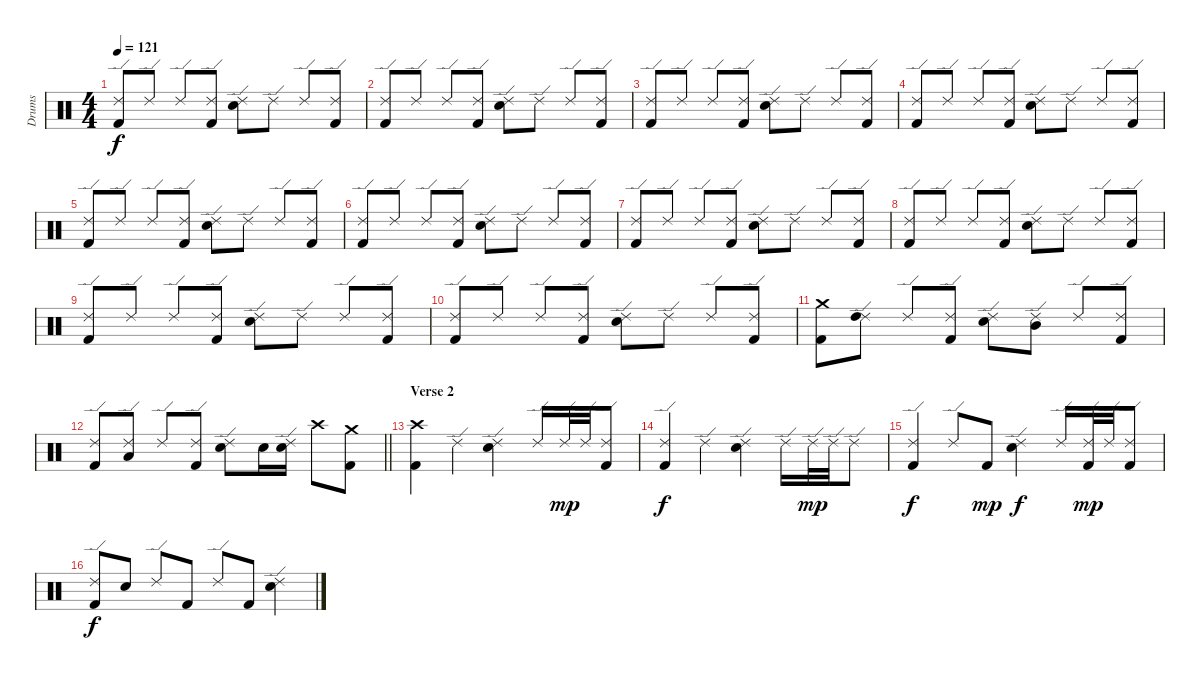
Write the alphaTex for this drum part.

\track ("Drums" "Drums") {instrument percussion}
\staff {score}
\articulation defaults
\ts (4 4)
\tempo 121
\clef neutral
\ks c
("Ride (edge) 2" "Kick (hit) 2").8{dy f} "Ride (edge) 2".8 "Ride (edge) 2".8 ("Ride (edge) 2" "Kick (hit) 2").8 ("Ride (edge) 2" "Electric Snare (hit)").8 "Ride (edge) 2".8 "Ride (edge) 2".8 ("Ride (edge) 2" "Kick (hit) 2").8 |
("Ride (edge) 2" "Kick (hit) 2").8 "Ride (edge) 2".8 "Ride (edge) 2".8 ("Ride (edge) 2" "Kick (hit) 2").8 ("Ride (edge) 2" "Electric Snare (hit)").8 "Ride (edge) 2".8 "Ride (edge) 2".8 ("Ride (edge) 2" "Kick (hit) 2").8 |
("Ride (edge) 2" "Kick (hit) 2").8 "Ride (edge) 2".8 "Ride (edge) 2".8 ("Ride (edge) 2" "Kick (hit) 2").8 ("Ride (edge) 2" "Electric Snare (hit)").8 "Ride (edge) 2".8 "Ride (edge) 2".8 ("Ride (edge) 2" "Kick (hit) 2").8 |
("Ride (edge) 2" "Kick (hit) 2").8 "Ride (edge) 2".8 "Ride (edge) 2".8 ("Ride (edge) 2" "Kick (hit) 2").8 ("Ride (edge) 2" "Electric Snare (hit)").8 "Ride (edge) 2".8 "Ride (edge) 2".8 ("Ride (edge) 2" "Kick (hit) 2").8 |
("Ride (edge) 2" "Kick (hit) 2").8 "Ride (edge) 2".8 "Ride (edge) 2".8 ("Ride (edge) 2" "Kick (hit) 2").8 ("Ride (edge) 2" "Electric Snare (hit)").8 "Ride (edge) 2".8 "Ride (edge) 2".8 ("Ride (edge) 2" "Kick (hit) 2").8 |
("Ride (edge) 2" "Kick (hit) 2").8 "Ride (edge) 2".8 "Ride (edge) 2".8 ("Ride (edge) 2" "Kick (hit) 2").8 ("Ride (edge) 2" "Electric Snare (hit)").8 "Ride (edge) 2".8 "Ride (edge) 2".8 ("Ride (edge) 2" "Kick (hit) 2").8 |
("Ride (edge) 2" "Kick (hit) 2").8 "Ride (edge) 2".8 "Ride (edge) 2".8 ("Ride (edge) 2" "Kick (hit) 2").8 ("Ride (edge) 2" "Electric Snare (hit)").8 "Ride (edge) 2".8 "Ride (edge) 2".8 ("Ride (edge) 2" "Kick (hit) 2").8 |
("Ride (edge) 2" "Kick (hit) 2").8 "Ride (edge) 2".8 "Ride (edge) 2".8 ("Ride (edge) 2" "Kick (hit) 2").8 ("Ride (edge) 2" "Electric Snare (hit)").8 "Ride (edge) 2".8 "Ride (edge) 2".8 ("Ride (edge) 2" "Kick (hit) 2").8 |
("Ride (edge) 2" "Kick (hit) 2").8 "Ride (edge) 2".8 "Ride (edge) 2".8 ("Ride (edge) 2" "Kick (hit) 2").8 ("Ride (edge) 2" "Electric Snare (hit)").8 "Ride (edge) 2".8 "Ride (edge) 2".8 ("Ride (edge) 2" "Kick (hit) 2").8 |
("Ride (edge) 2" "Kick (hit) 2").8 "Ride (edge) 2".8 "Ride (edge) 2".8 ("Ride (edge) 2" "Kick (hit) 2").8 ("Ride (edge) 2" "Electric Snare (hit)").8 "Ride (edge) 2".8 "Ride (edge) 2".8 ("Ride (edge) 2" "Kick (hit) 2").8 |
("Crash medium (hit)" "Kick (hit) 2").8 ("Ride (edge) 2" "High Tom (hit)").8 "Ride (edge) 2".8 ("Ride (edge) 2" "Kick (hit) 2").8 ("Ride (edge) 2" "Electric Snare (hit)").8 ("Ride (edge) 2" "Mid Tom (hit)").8 "Ride (edge) 2".8 ("Ride (edge) 2" "Kick (hit) 2").8 |
\barLineRight lightlight
("Ride (edge) 2" "Kick (hit) 2").8 ("Ride (edge) 2" "Low Tom (hit)").8 "Ride (edge) 2".8 ("Ride (edge) 2" "Kick (hit) 2").8 ("Ride (edge) 2" "Electric Snare (hit)").8 "Electric Snare (hit)".16 ("Ride (edge) 2" "Electric Snare (hit)").16 "Crash high (hit)".8 ("Crash medium (hit)" "Kick (hit) 2").8 |
\section ("" "Verse 2")
("Crash high (hit)" "Kick (hit) 2").4 "Ride (edge) 2".4 ("Ride (edge) 2" "Electric Snare (hit)").4 "Ride (edge) 2".16 "Ride (edge) 2".32{dy mp} "Ride (edge) 2".32 ("Ride (edge) 2" "Kick (hit) 2").8 |
("Ride (edge) 2" "Kick (hit) 2").4{dy f} "Ride (edge) 2".4 ("Ride (edge) 2" "Electric Snare (hit)").4 "Ride (edge) 2".16 "Ride (edge) 2".32{dy mp} "Ride (edge) 2".32 "Ride (edge) 2".8 |
("Ride (edge) 2" "Kick (hit) 2").4{dy f} "Ride (edge) 2".8 "Kick (hit) 2".8{dy mp} ("Ride (edge) 2" "Electric Snare (hit)").4{dy f} "Ride (edge) 2".16 ("Ride (edge) 2" "Kick (hit) 2").32{dy mp} "Ride (edge) 2".32 ("Ride (edge) 2" "Kick (hit) 2").8 |
("Ride (edge) 2" "Kick (hit) 2").8{dy f} "Electric Snare (hit)".8 "Ride (edge) 2".8 "Kick (hit) 2".8 "Ride (edge) 2".8 "Kick (hit) 2".8 ("Ride (edge) 2" "Electric Snare (hit)").4
